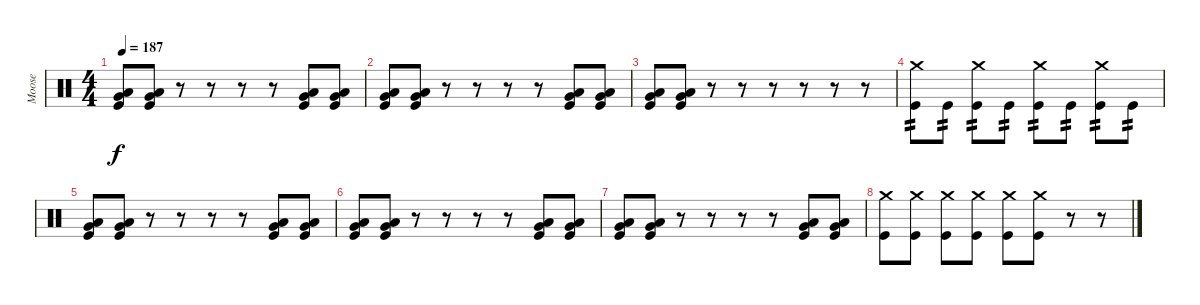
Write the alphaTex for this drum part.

\track ("Moose" "Moose") {instrument percussion}
\staff {score}
\articulation defaults
\ts (4 4)
\tempo 187
\clef neutral
\ks c
("Low Floor Tom (hit)" "Very Low Tom (hit)" "Kick (hit)").8{dy f} ("Low Floor Tom (hit)" "Very Low Tom (hit)" "Kick (hit)").8 r.8 r.8 r.8 r.8 ("Low Floor Tom (hit)" "Very Low Tom (hit)" "Kick (hit)").8 ("Low Floor Tom (hit)" "Very Low Tom (hit)" "Kick (hit)").8 |
("Low Floor Tom (hit)" "Very Low Tom (hit)" "Kick (hit)").8 ("Low Floor Tom (hit)" "Very Low Tom (hit)" "Kick (hit)").8 r.8 r.8 r.8 r.8 ("Low Floor Tom (hit)" "Very Low Tom (hit)" "Kick (hit)").8 ("Low Floor Tom (hit)" "Very Low Tom (hit)" "Kick (hit)").8 |
("Low Floor Tom (hit)" "Very Low Tom (hit)" "Kick (hit)").8 ("Low Floor Tom (hit)" "Very Low Tom (hit)" "Kick (hit)").8 r.8 r.8 r.8 r.8 r.8 r.8 |
("Crash medium (hit)" "Kick (hit)").8{tp 2} "Kick (hit)".8{tp 2} ("Crash medium (hit)" "Kick (hit)").8{tp 2} "Kick (hit)".8{tp 2} ("Crash medium (hit)" "Kick (hit)").8{tp 2} "Kick (hit)".8{tp 2} ("Crash medium (hit)" "Kick (hit)").8{tp 2} "Kick (hit)".8{tp 2} |
("Low Floor Tom (hit)" "Very Low Tom (hit)" "Kick (hit)").8 ("Low Floor Tom (hit)" "Very Low Tom (hit)" "Kick (hit)").8 r.8 r.8 r.8 r.8 ("Low Floor Tom (hit)" "Very Low Tom (hit)" "Kick (hit)").8 ("Low Floor Tom (hit)" "Very Low Tom (hit)" "Kick (hit)").8 |
("Low Floor Tom (hit)" "Very Low Tom (hit)" "Kick (hit)").8 ("Low Floor Tom (hit)" "Very Low Tom (hit)" "Kick (hit)").8 r.8 r.8 r.8 r.8 ("Low Floor Tom (hit)" "Very Low Tom (hit)" "Kick (hit)").8 ("Low Floor Tom (hit)" "Very Low Tom (hit)" "Kick (hit)").8 |
("Low Floor Tom (hit)" "Very Low Tom (hit)" "Kick (hit)").8 ("Low Floor Tom (hit)" "Very Low Tom (hit)" "Kick (hit)").8 r.8 r.8 r.8 r.8 ("Low Floor Tom (hit)" "Very Low Tom (hit)" "Kick (hit)").8 ("Low Floor Tom (hit)" "Very Low Tom (hit)" "Kick (hit)").8 |
("Crash medium (hit)" "Kick (hit)").8 ("Crash medium (hit)" "Kick (hit)").8 ("Crash medium (hit)" "Kick (hit)").8 ("Crash medium (hit)" "Kick (hit)").8 ("Crash medium (hit)" "Kick (hit)").8 ("Crash medium (hit)" "Kick (hit)").8 r.8 r.8
